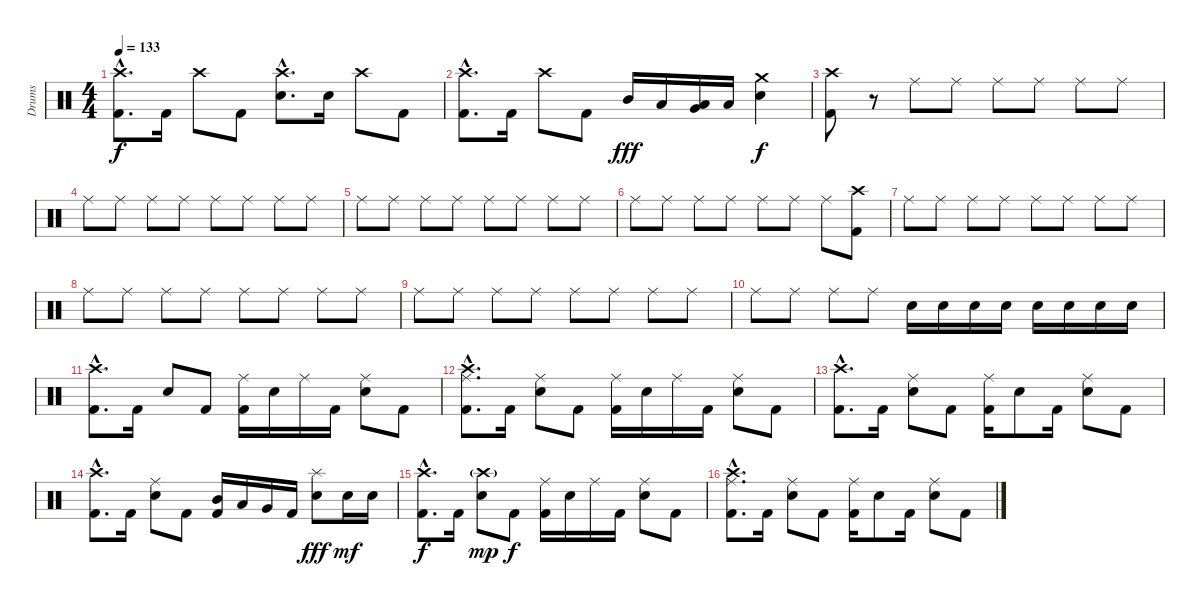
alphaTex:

\track ("Drums" "Drums") {instrument percussion}
\staff {score}
\articulation defaults
\ts (4 4)
\tempo 133
\clef neutral
\ks c
("Crash high (hit)"{hac} "Kick (hit) 2"{hac}).8{d dy f} "Kick (hit) 2".16 "Crash high (hit)".8 "Kick (hit) 2".8 ("Crash high (hit)"{hac} "Snare (hit) 2"{hac}).8{d} "Snare (hit) 2".16 "Crash high (hit)".8 "Kick (hit) 2".8 |
("Crash high (hit)"{hac} "Kick (hit) 2"{hac}).8{d} "Kick (hit) 2".16 "Crash high (hit)".8 "Kick (hit) 2".8 "Mid Tom (hit)".16{dy fff} "Low Tom (hit)".16 ("Low Tom (hit)" "Very Low Tom (hit)").16 "Low Floor Tom (hit)".16 ("Crash medium (hit)" "Snare (hit) 2").4{dy f} |
("Crash high (hit)" "Kick (hit) 2").8 r.8 "Ride (middle)".8 "Ride (middle)".8 "Ride (middle)".8 "Ride (middle)".8 "Ride (middle)".8 "Ride (middle)".8 |
"Ride (middle)".8 "Ride (middle)".8 "Ride (middle)".8 "Ride (middle)".8 "Ride (middle)".8 "Ride (middle)".8 "Ride (middle)".8 "Ride (middle)".8 |
"Ride (middle)".8 "Ride (middle)".8 "Ride (middle)".8 "Ride (middle)".8 "Ride (middle)".8 "Ride (middle)".8 "Ride (middle)".8 "Ride (middle)".8 |
"Ride (middle)".8 "Ride (middle)".8 "Ride (middle)".8 "Ride (middle)".8 "Ride (middle)".8 "Ride (middle)".8 "Ride (middle)".8 ("Crash high (hit)" "Kick (hit) 2").8 |
"Ride (middle)".8 "Ride (middle)".8 "Ride (middle)".8 "Ride (middle)".8 "Ride (middle)".8 "Ride (middle)".8 "Ride (middle)".8 "Ride (middle)".8 |
"Ride (middle)".8 "Ride (middle)".8 "Ride (middle)".8 "Ride (middle)".8 "Ride (middle)".8 "Ride (middle)".8 "Ride (middle)".8 "Ride (middle)".8 |
"Ride (middle)".8 "Ride (middle)".8 "Ride (middle)".8 "Ride (middle)".8 "Ride (middle)".8 "Ride (middle)".8 "Ride (middle)".8 "Ride (middle)".8 |
"Ride (middle)".8 "Ride (middle)".8 "Ride (middle)".8 "Ride (middle)".8 "Snare (hit) 2".16 "Snare (hit) 2".16 "Snare (hit) 2".16 "Snare (hit) 2".16 "Snare (hit) 2".16 "Snare (hit) 2".16 "Snare (hit) 2".16 "Snare (hit) 2".16 |
("Crash high (hit)"{hac} "Kick (hit) 2"{hac}).8{d} "Kick (hit) 2".16 "Snare (hit) 2".8 "Kick (hit) 2".8 ("Ride (middle)" "Kick (hit) 2").16 "Snare (hit) 2".16 "Ride (middle)".16 "Kick (hit) 2".16 ("Ride (middle)" "Snare (hit) 2").8 "Kick (hit) 2".8 |
("Crash high (hit)"{hac} "Ride (middle)"{hac} "Kick (hit) 2"{hac}).8{d} "Kick (hit) 2".16 ("Ride (middle)" "Snare (hit) 2").8 "Kick (hit) 2".8 ("Ride (middle)" "Kick (hit) 2").16 "Snare (hit) 2".16 "Ride (middle)".16 "Kick (hit) 2".16 ("Ride (middle)" "Snare (hit) 2").8 "Kick (hit) 2".8 |
("Crash high (hit)"{hac} "Kick (hit) 2"{hac}).8{d} "Kick (hit) 2".16 ("Ride (middle)" "Snare (hit) 2").8 "Kick (hit) 2".8 ("Ride (middle)" "Kick (hit) 2").16 "Snare (hit) 2".8 "Kick (hit) 2".16 ("Ride (middle)" "Snare (hit) 2").8 "Kick (hit) 2".8 |
("Crash high (hit)"{hac} "Kick (hit) 2"{hac}).8{d} "Kick (hit) 2".16 ("Ride (middle)" "Snare (hit) 2").8 "Kick (hit) 2".8 ("Mid Tom (hit)" "Kick (hit) 2").16 "Low Tom (hit)".16 "Very Low Tom (hit)".16 "Kick (hit) 2".16 ("Splash (hit)" "Snare (hit) 2").8{dy fff} "Snare (hit) 2".16{dy mf} "Snare (hit) 2".16 |
("Crash high (hit)"{hac} "Kick (hit) 2"{hac}).8{d dy f} "Kick (hit) 2".16 ("Crash high (hit)"{g} "Snare (hit) 2").8{dy mp} "Kick (hit) 2".8{dy f} ("Ride (middle)" "Kick (hit) 2").16 "Snare (hit) 2".16 "Ride (middle)".16 "Kick (hit) 2".16 ("Ride (middle)" "Snare (hit) 2").8 "Kick (hit) 2".8 |
("Crash high (hit)"{hac} "Ride (middle)"{hac} "Kick (hit) 2"{hac}).8{d} "Kick (hit) 2".16 ("Ride (middle)" "Snare (hit) 2").8 "Kick (hit) 2".8 ("Ride (middle)" "Kick (hit) 2").16 "Snare (hit) 2".8 "Kick (hit) 2".16 ("Ride (middle)" "Snare (hit) 2").8 "Kick (hit) 2".8
